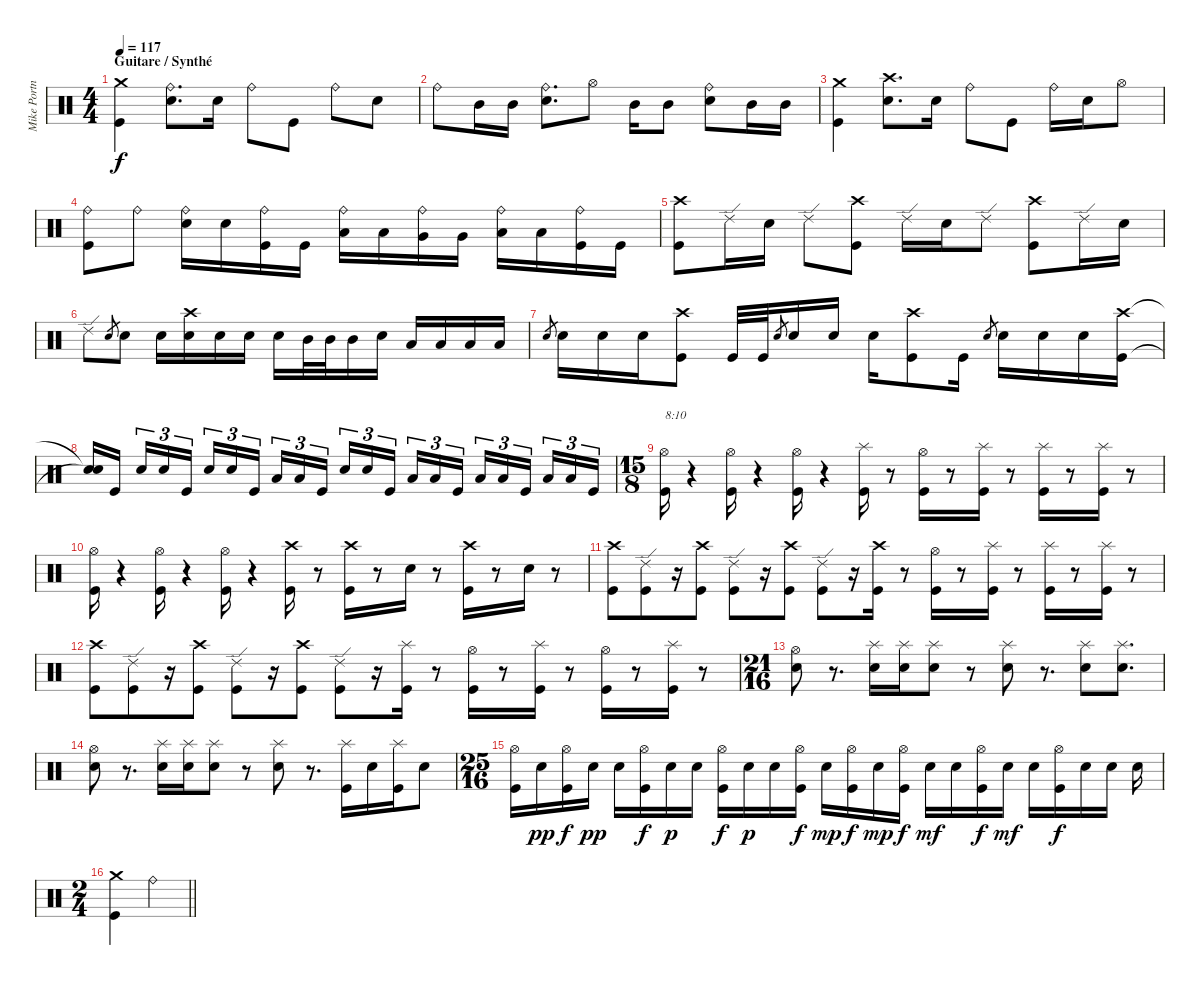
\track ("Mike Portnoy" "Mike Portn") {instrument percussion}
\staff {score}
\articulation defaults
\ts (4 4)
\section ("" "Guitare / Synthé")
\tempo 117
\clef neutral
\ks c
("Crash medium (hit)" "Kick (hit)").4{dy f} ("Ride (bell)" "Snare (hit) 2").8{d} "Snare (hit) 2".16 "Ride (bell)".8 "Kick (hit)".8 "Ride (bell)".8 "Snare (hit) 2".8 |
"Ride (bell)".8 "Mid Tom (hit)".16 "Mid Tom (hit)".16 ("Ride (bell)" "Snare (hit) 2").8{d} "Hi-Hat (open)".8 "Mid Tom (hit)".16 "Mid Tom (hit)".8 ("Ride (bell)" "Snare (hit) 2").8 "Mid Tom (hit)".16 "Mid Tom (hit)".16 |
("Crash medium (hit)" "Kick (hit)").4 ("Crash high (hit)" "Snare (hit) 2").8{d} "Snare (hit) 2".16 "Ride (bell)".8 "Kick (hit)".8 "Ride (bell)".16 "Snare (hit) 2".16 "Hi-Hat (open)".8 |
("Ride (bell)" "Kick (hit)").8 "Ride (bell)".8 ("Ride (bell)" "Snare (hit) 2").16 "Snare (hit) 2".16 ("Ride (bell)" "Kick (hit)").16 "Kick (hit)".16 ("Ride (bell)" "Low Tom (hit)").16 "Low Tom (hit)".16 ("Ride (bell)" "Very Low Tom (hit)").16 "Very Low Tom (hit)".16 ("Ride (bell)" "Low Floor Tom (hit)").16 "Low Floor Tom (hit)".16 ("Ride (bell)" "Kick (hit)").16 "Kick (hit)".16 |
("Crash high (hit)" "Kick (hit)").8 "Ride (edge) 2".16 "Snare (hit) 2".16 "Ride (edge) 2".8 ("Crash high (hit)" "Kick (hit)").8 "Ride (edge) 2".16 "Snare (hit) 2".16 "Ride (edge) 2".8 ("Crash high (hit)" "Kick (hit)").8 "Ride (edge) 2".16 "Snare (hit) 2".16 |
"Ride (edge) 2".8 "Snare (hit) 2".8{gr} "Snare (hit) 2".8 "Snare (hit) 2".16 ("Crash high (hit)" "Snare (hit) 2").16 "Snare (hit) 2".16 "Snare (hit) 2".16 "Snare (hit) 2".16 "Mid Tom (hit)".32 "Mid Tom (hit)".32 "Mid Tom (hit)".16 "Snare (hit) 2".16 "Low Tom (hit)".16 "Low Tom (hit)".16 "Low Tom (hit)".16 "Low Tom (hit)".16 |
"Snare (hit) 2".8{gr} "Snare (hit) 2".16 "Snare (hit) 2".16 "Snare (hit) 2".16 ("Crash high (hit)" "Kick (hit)").8 "Kick (hit)".32 "Kick (hit)".32 "Snare (hit) 2".8{gr} "Snare (hit) 2".16 "Snare (hit) 2".16 "Snare (hit) 2".16 ("Crash high (hit)" "Kick (hit)").8 "Kick (hit)".16 "Snare (hit) 2".8{gr} "Snare (hit) 2".16 "Snare (hit) 2".16 "Snare (hit) 2".16 ("Crash high (hit)" "Kick (hit)").16 |
("Snare (hit)"{t} "Snare (hit)"{t}).16 "Kick (hit)".16 "Snare (hit) 2".16{tu (3 2)} "Snare (hit) 2".16{tu (3 2)} "Kick (hit)".16{tu (3 2)} "Snare (hit) 2".16{tu (3 2)} "Snare (hit) 2".16{tu (3 2)} "Kick (hit)".16{tu (3 2)} "Low Tom (hit)".16{tu (3 2)} "Low Tom (hit)".16{tu (3 2)} "Kick (hit)".16{tu (3 2)} "Snare (hit) 2".16{tu (3 2)} "Snare (hit) 2".16{tu (3 2)} "Kick (hit)".16{tu (3 2)} "Low Tom (hit)".16{tu (3 2)} "Low Tom (hit)".16{tu (3 2)} "Kick (hit)".16{tu (3 2)} "Low Tom (hit)".16{tu (3 2)} "Low Tom (hit)".16{tu (3 2)} "Kick (hit)".16{tu (3 2)} "Low Tom (hit)".16{tu (3 2)} "Low Tom (hit)".16{tu (3 2)} "Kick (hit)".16{tu (3 2)} |
\ts (15 8)
("Hi-Hat (open)" "Kick (hit)").16{txt "8:10"} r.4 ("Hi-Hat (open)" "Kick (hit)").16 r.4 ("Hi-Hat (open)" "Kick (hit)").16 r.4 ("Splash (hit)" "Kick (hit)").16 r.8 ("Hi-Hat (open)" "Kick (hit)").16 r.8 ("Splash (hit)" "Kick (hit)").16 r.8 ("Splash (hit)" "Kick (hit)").16 r.8 ("Splash (hit)" "Kick (hit)").16 r.8 |
("Hi-Hat (open)" "Kick (hit)").16 r.4 ("Hi-Hat (open)" "Kick (hit)").16 r.4 ("Hi-Hat (open)" "Kick (hit)").16 r.4 ("Crash high (hit)" "Kick (hit)").16 r.8 ("Crash high (hit)" "Kick (hit)").16 r.8 "Snare (hit) 2".16 r.8 ("Crash high (hit)" "Kick (hit)").16 r.8 "Snare (hit) 2".16 r.8 |
("Crash high (hit)" "Kick (hit)").8 ("Ride (edge) 2" "Kick (hit)").8 r.16 ("Crash high (hit)" "Kick (hit)").8 ("Ride (edge) 2" "Kick (hit)").8 r.16 ("Crash high (hit)" "Kick (hit)").8 ("Ride (edge) 2" "Kick (hit)").8 r.16 ("Crash high (hit)" "Kick (hit)").16 r.8 ("Hi-Hat (open)" "Kick (hit)").16 r.8 ("Splash (hit)" "Kick (hit)").16 r.8 ("Splash (hit)" "Kick (hit)").16 r.8 ("Splash (hit)" "Kick (hit)").16 r.8 |
("Crash high (hit)" "Kick (hit)").8 ("Ride (edge) 2" "Kick (hit)").8 r.16 ("Crash high (hit)" "Kick (hit)").8 ("Ride (edge) 2" "Kick (hit)").8 r.16 ("Crash high (hit)" "Kick (hit)").8 ("Ride (edge) 2" "Kick (hit)").8 r.16 ("Splash (hit)" "Kick (hit)").16 r.8 ("Hi-Hat (open)" "Kick (hit)").16 r.8 ("Splash (hit)" "Kick (hit)").16 r.8 ("Hi-Hat (open)" "Kick (hit)").16 r.8 ("Splash (hit)" "Kick (hit)").16 r.8 |
\ts (21 16)
("Hi-Hat (open)" "Snare (hit) 2").8 r.8{d} ("Splash (hit)" "Snare (hit) 2").16 ("Splash (hit)" "Snare (hit) 2").16 ("Splash (hit)" "Snare (hit) 2").8 r.8 ("Splash (hit)" "Snare (hit) 2").8 r.8{d} ("Splash (hit)" "Snare (hit) 2").8 ("Splash (hit)" "Snare (hit) 2").8{d} |
("Hi-Hat (open)" "Snare (hit) 2").8 r.8{d} ("Splash (hit)" "Snare (hit) 2").16 ("Splash (hit)" "Snare (hit) 2").16 ("Splash (hit)" "Snare (hit) 2").8 r.8 ("Splash (hit)" "Snare (hit) 2").8 r.8{d} ("Splash (hit)" "Kick (hit)").16 "Snare (hit) 2".16 ("Splash (hit)" "Kick (hit)").16 "Snare (hit) 2".8 |
\ts (25 16)
("Hi-Hat (open)" "Kick (hit)").16 "Snare (hit) 2".16{dy pp} ("Hi-Hat (open)" "Kick (hit)").16{dy f} "Snare (hit) 2".16{dy pp} "Snare (hit) 2".16 ("Hi-Hat (open)" "Kick (hit)").16{dy f} "Snare (hit) 2".16{dy p} "Snare (hit) 2".16 ("Hi-Hat (open)" "Kick (hit)").16{dy f} "Snare (hit) 2".16{dy p} "Snare (hit) 2".16 ("Hi-Hat (open)" "Kick (hit)").16{dy f} "Snare (hit) 2".16{dy mp} ("Hi-Hat (open)" "Kick (hit)").16{dy f} "Snare (hit) 2".16{dy mp} ("Hi-Hat (open)" "Kick (hit)").16{dy f} "Snare (hit) 2".16{dy mf} "Snare (hit) 2".16 ("Hi-Hat (open)" "Kick (hit)").16{dy f} "Snare (hit) 2".16{dy mf} "Snare (hit) 2".16 ("Hi-Hat (open)" "Kick (hit)").16{dy f} "Snare (hit) 2".16 "Snare (hit) 2".16 "Snare (hit) 2".16 |
\ts (2 4)
\barLineRight lightlight
("Crash medium (hit)" "Kick (hit)").4 "Ride (bell)".4
